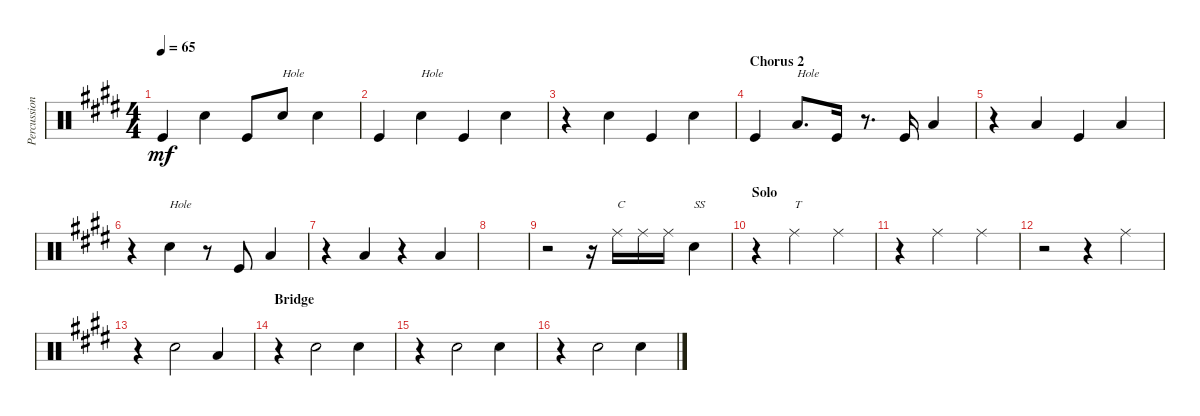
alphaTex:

\track ("Percussion" "Percussion") {instrument percussion}
\staff {score}
\articulation defaults
\ts (4 4)
\tempo 65
\clef neutral
\ks e "Kick (hit)".4{dy mf} "Snare (hit) 2".4 "Kick (hit)".8 "Snare (hit) 2".8{txt "Hole"} "Snare (hit) 2".4
|
"Kick (hit)".4 "Snare (hit) 2".4{txt "Hole"} "Kick (hit)".4 "Snare (hit) 2".4 |
r.4 "Snare (hit) 2".4 "Kick (hit)".4 "Snare (hit) 2".4 |
\section ("" "Chorus 2")
"Kick (hit)".4 "Low Tom (hit)".8{d txt "Hole"} "Kick (hit)".16 r.8{d} "Kick (hit)".16 "Low Tom (hit)".4 |
r.4 "Low Tom (hit)".4 "Kick (hit)".4 "Low Tom (hit)".4 |
r.4 "Snare (hit) 2".4{txt "Hole"} r.8 "Kick (hit)".8 "Low Tom (hit)".4 |
r.4 "Low Tom (hit)".4 r.4 "Low Tom (hit)".4 |
|
r.2 r.16 "Ride (middle)".16{txt "C"} "Ride (middle)".16 "Ride (middle)".16 "Snare (hit) 2".4{txt "SS"} |
\section ("" "Solo")
r.4 "Ride (middle)".2{txt "T"} "Ride (middle)".4 |
r.4 "Ride (middle)".2 "Ride (middle)".4 |
r.2 r.4 "Ride (middle)".4 |
r.4 "Snare (hit) 2".2 "Low Tom (hit)".4 |
\section ("" "Bridge")
r.4 "Snare (hit) 2".2 "Snare (hit) 2".4 |
r.4 "Snare (hit) 2".2 "Snare (hit) 2".4 |
r.4 "Snare (hit) 2".2 "Snare (hit) 2".4
